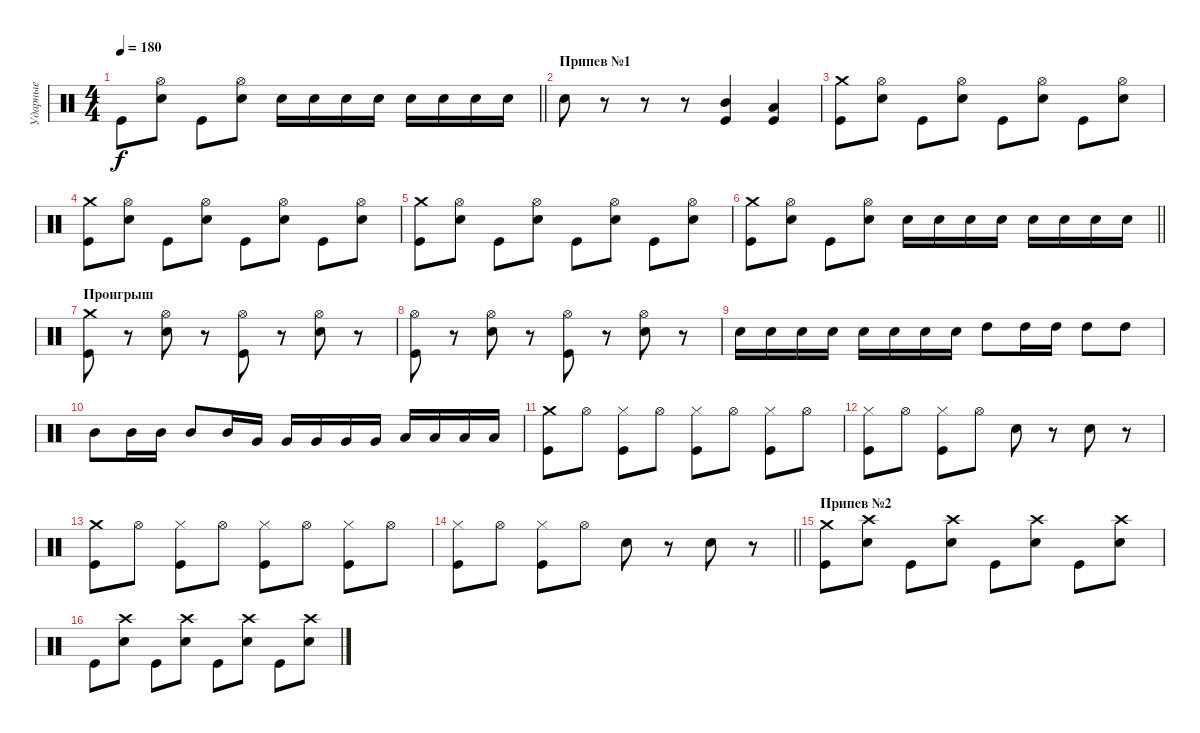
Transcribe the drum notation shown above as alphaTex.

\track ("Ударные" "Ударные") {instrument percussion}
\staff {score}
\articulation defaults
\ts (4 4)
\tempo 180
\clef neutral
\barLineRight lightlight
\ks c "Kick (hit)".8{dy f}
("Hi-Hat (open)" "Electric Snare (hit)").8 "Kick (hit)".8 ("Hi-Hat (open)" "Electric Snare (hit)").8 "Electric Snare (hit)".16 "Electric Snare (hit)".16 "Electric Snare (hit)".16 "Electric Snare (hit)".16 "Electric Snare (hit)".16 "Electric Snare (hit)".16 "Electric Snare (hit)".16 "Electric Snare (hit)".16 |
\section ("" "Припев №1")
"Electric Snare (hit)".8 r.8 r.8 r.8 ("Mid Tom (hit)" "Kick (hit)").4 ("Low Tom (hit)" "Kick (hit)").4 |
("Crash medium (hit)" "Kick (hit)").8 ("Hi-Hat (open)" "Electric Snare (hit)").8 "Kick (hit)".8 ("Hi-Hat (open)" "Electric Snare (hit)").8 "Kick (hit)".8 ("Hi-Hat (open)" "Electric Snare (hit)").8 "Kick (hit)".8 ("Hi-Hat (open)" "Electric Snare (hit)").8 |
("Crash medium (hit)" "Kick (hit)").8 ("Hi-Hat (open)" "Electric Snare (hit)").8 "Kick (hit)".8 ("Hi-Hat (open)" "Electric Snare (hit)").8 "Kick (hit)".8 ("Hi-Hat (open)" "Electric Snare (hit)").8 "Kick (hit)".8 ("Hi-Hat (open)" "Electric Snare (hit)").8 |
("Crash medium (hit)" "Kick (hit)").8 ("Hi-Hat (open)" "Electric Snare (hit)").8 "Kick (hit)".8 ("Hi-Hat (open)" "Electric Snare (hit)").8 "Kick (hit)".8 ("Hi-Hat (open)" "Electric Snare (hit)").8 "Kick (hit)".8 ("Hi-Hat (open)" "Electric Snare (hit)").8 |
\barLineRight lightlight
("Crash medium (hit)" "Kick (hit)").8 ("Hi-Hat (open)" "Electric Snare (hit)").8 "Kick (hit)".8 ("Hi-Hat (open)" "Electric Snare (hit)").8 "Electric Snare (hit)".16 "Electric Snare (hit)".16 "Electric Snare (hit)".16 "Electric Snare (hit)".16 "Electric Snare (hit)".16 "Electric Snare (hit)".16 "Electric Snare (hit)".16 "Electric Snare (hit)".16 |
\section ("" "Проигрыш")
("Crash medium (hit)" "Kick (hit)").8 r.8 ("Hi-Hat (open)" "Electric Snare (hit)").8 r.8 ("Hi-Hat (open)" "Kick (hit)").8 r.8 ("Hi-Hat (open)" "Electric Snare (hit)").8 r.8 |
("Hi-Hat (open)" "Kick (hit)").8 r.8 ("Hi-Hat (open)" "Electric Snare (hit)").8 r.8 ("Hi-Hat (open)" "Kick (hit)").8 r.8 ("Hi-Hat (open)" "Electric Snare (hit)").8 r.8 |
"Electric Snare (hit)".16 "Electric Snare (hit)".16 "Electric Snare (hit)".16 "Electric Snare (hit)".16 "Electric Snare (hit)".16 "Electric Snare (hit)".16 "Electric Snare (hit)".16 "Electric Snare (hit)".16 "High Tom (hit)".8 "High Tom (hit)".16 "High Tom (hit)".16 "High Tom (hit)".8 "High Tom (hit)".8 |
"Mid Tom (hit)".8 "Mid Tom (hit)".16 "Mid Tom (hit)".16 "Mid Tom (hit)".8 "Mid Tom (hit)".16 "Very Low Tom (hit)".16 "Very Low Tom (hit)".16 "Very Low Tom (hit)".16 "Very Low Tom (hit)".16 "Very Low Tom (hit)".16 "Low Floor Tom (hit)".16 "Low Floor Tom (hit)".16 "Low Floor Tom (hit)".16 "Low Floor Tom (hit)".16 |
("Crash medium (hit)" "Kick (hit)").8 "Hi-Hat (open)".8 ("Kick (hit)" "Hi-Hat (closed)").8 "Hi-Hat (open)".8 ("Kick (hit)" "Hi-Hat (closed)").8 "Hi-Hat (open)".8 ("Kick (hit)" "Hi-Hat (closed)").8 "Hi-Hat (open)".8 |
("Kick (hit)" "Hi-Hat (closed)").8 "Hi-Hat (open)".8 ("Kick (hit)" "Hi-Hat (closed)").8 "Hi-Hat (open)".8 "Electric Snare (hit)".8 r.8 "Electric Snare (hit)".8 r.8 |
("Crash medium (hit)" "Kick (hit)").8 "Hi-Hat (open)".8 ("Kick (hit)" "Hi-Hat (closed)").8 "Hi-Hat (open)".8 ("Kick (hit)" "Hi-Hat (closed)").8 "Hi-Hat (open)".8 ("Kick (hit)" "Hi-Hat (closed)").8 "Hi-Hat (open)".8 |
\barLineRight lightlight
("Kick (hit)" "Hi-Hat (closed)").8 "Hi-Hat (open)".8 ("Kick (hit)" "Hi-Hat (closed)").8 "Hi-Hat (open)".8 "Electric Snare (hit)".8 r.8 "Electric Snare (hit)".8 r.8 |
\section ("" "Припев №2")
("Crash medium (hit)" "Kick (hit)").8 ("Crash high (hit)" "Electric Snare (hit)").8 "Kick (hit)".8 ("Crash high (hit)" "Electric Snare (hit)").8 "Kick (hit)".8 ("Crash high (hit)" "Electric Snare (hit)").8 "Kick (hit)".8 ("Crash high (hit)" "Electric Snare (hit)").8 |
"Kick (hit)".8 ("Crash high (hit)" "Electric Snare (hit)").8 "Kick (hit)".8 ("Crash high (hit)" "Electric Snare (hit)").8 "Kick (hit)".8 ("Crash high (hit)" "Electric Snare (hit)").8 "Kick (hit)".8 ("Crash high (hit)" "Electric Snare (hit)").8
